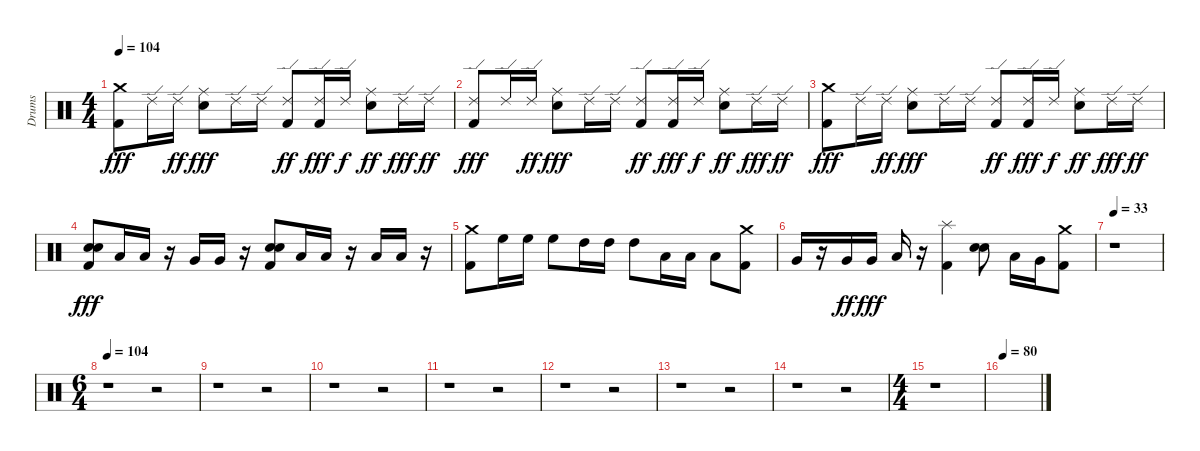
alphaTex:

\track ("Drums" "Drums") {instrument percussion}
\staff {score}
\articulation defaults
\ts (4 4)
\tempo 104
\clef neutral
\ks c
("Crash medium (hit)" "Kick (hit) 2").8{dy fff} "Ride (edge) 2".16 "Ride (edge) 2".16{dy ff} ("Electric Snare (hit)" "Ride (middle)").8{dy fff} "Ride (edge) 2".16 "Ride (edge) 2".16 ("Kick (hit) 2" "Ride (edge) 2").8{dy ff} ("Kick (hit) 2" "Ride (edge) 2").16{dy fff} "Ride (edge) 2".16{dy f} ("Electric Snare (hit)" "Ride (middle)").8{dy ff} "Ride (edge) 2".16{dy fff} "Ride (edge) 2".16{dy ff} |
("Kick (hit) 2" "Ride (edge) 2").8{dy fff} "Ride (edge) 2".16 "Ride (edge) 2".16{dy ff} ("Electric Snare (hit)" "Ride (middle)").8{dy fff} "Ride (edge) 2".16 "Ride (edge) 2".16 ("Kick (hit) 2" "Ride (edge) 2").8{dy ff} ("Kick (hit) 2" "Ride (edge) 2").16{dy fff} "Ride (edge) 2".16{dy f} ("Electric Snare (hit)" "Ride (middle)").8{dy ff} "Ride (edge) 2".16{dy fff} "Ride (edge) 2".16{dy ff} |
("Crash medium (hit)" "Kick (hit) 2").8{dy fff} "Ride (edge) 2".16 "Ride (edge) 2".16{dy ff} ("Electric Snare (hit)" "Ride (middle)").8{dy fff} "Ride (edge) 2".16 "Ride (edge) 2".16 ("Kick (hit) 2" "Ride (edge) 2").8{dy ff} ("Kick (hit) 2" "Ride (edge) 2").16{dy fff} "Ride (edge) 2".16{dy f} ("Electric Snare (hit)" "Ride (middle)").8{dy ff} "Ride (edge) 2".16{dy fff} "Ride (edge) 2".16{dy ff} |
("Electric Snare (hit)" "Kick (hit) 2" "Electric Snare (hit)").8{dy fff} "Low Tom (hit)".16 "Low Tom (hit)".16 r.16 "Very Low Tom (hit)".16 "Very Low Tom (hit)".16 r.16 ("Kick (hit) 2" "Electric Snare (hit)" "Electric Snare (hit)").8 "Low Tom (hit)".16 "Low Tom (hit)".16 r.16 "Low Floor Tom (hit)".16 "Low Floor Tom (hit)".16 r.16 |
("Crash medium (hit)" "Kick (hit) 2").8 "High Floor Tom (hit)".16 "High Floor Tom (hit)".16 "High Floor Tom (hit)".8 "High Tom (hit)".16 "High Tom (hit)".16 "High Tom (hit)".8 "Low Tom (hit)".16 "Low Tom (hit)".16 "Low Tom (hit)".8 ("Kick (hit) 2" "Crash medium (hit)").8 |
"Very Low Tom (hit)".16 r.16 "Very Low Tom (hit)".16{dy ff} "Very Low Tom (hit)".16{dy fff} "Low Floor Tom (hit)".16 r.16 ("Kick (hit) 2" "Splash (hit)").4 ("Electric Snare (hit)" "Electric Snare (hit)").8 "Low Tom (hit)".16 "Very Low Tom (hit)".16 ("Kick (hit) 2" "Crash medium (hit)").8 |
\tempo 33
r.1 |
\ts (6 4)
\tempo 104
r.1 r.2 |
r.1 r.2 |
r.1 r.2 |
r.1 r.2 |
r.1 r.2 |
r.1 r.2 |
r.1 r.2 |
\ts (4 4)
r.1 |
\tempo 80
